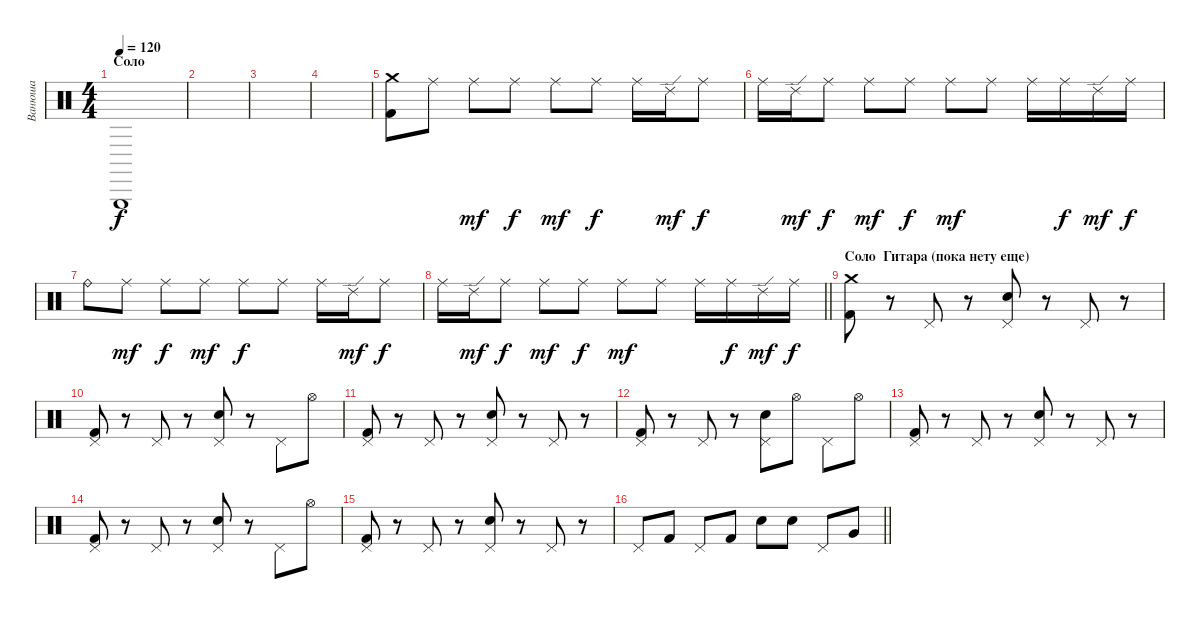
\track ("Ванюша" "Ванюша") {instrument percussion}
\staff {score}
\articulation defaults
\ts (4 4)
\section ("" "Соло")
\tempo 120
\clef neutral
\ks c "Triangle (hit)".1{dy f}
|
|
|
|
("Kick (hit) 2" "Crash medium (hit)").8 "Ride (middle)".8 "Ride (middle)".8{dy mf} "Ride (middle)".8{dy f} "Ride (middle)".8{dy mf} "Ride (middle)".8{dy f} "Ride (middle)".16 "Ride (edge) 2".16{dy mf} "Ride (middle)".8{dy f} |
"Ride (middle)".16 "Ride (edge) 2".16{dy mf} "Ride (middle)".8{dy f} "Ride (middle)".8{dy mf} "Ride (middle)".8{dy f} "Ride (middle)".8{dy mf} "Ride (middle)".8 "Ride (middle)".16 "Ride (middle)".16{dy f} "Ride (edge) 2".16{dy mf} "Ride (middle)".16{dy f} |
"Ride (bell)".8 "Ride (middle)".8{dy mf} "Ride (middle)".8{dy f} "Ride (middle)".8{dy mf} "Ride (middle)".8{dy f} "Ride (middle)".8 "Ride (middle)".16 "Ride (edge) 2".16{dy mf} "Ride (middle)".8{dy f} |
\barLineRight lightlight "Ride (middle)".16 "Ride (edge) 2".16{dy mf} "Ride (middle)".8{dy f} "Ride (middle)".8{dy mf} "Ride (middle)".8{dy f} "Ride (middle)".8{dy mf} "Ride (middle)".8 "Ride (middle)".16 "Ride (middle)".16{dy f} "Ride (edge) 2".16{dy mf} "Ride (middle)".16{dy f}
|
\section ("" "Соло  Гитара (пока нету еще)")
("Crash medium (hit)" "Kick (hit) 2").8 r.8 "Pedal Hi-Hat (hit)".8 r.8 ("Pedal Hi-Hat (hit)" "Snare (hit) 2").8 r.8 "Pedal Hi-Hat (hit)".8 r.8 |
("Pedal Hi-Hat (hit)" "Kick (hit) 2").8 r.8 "Pedal Hi-Hat (hit)".8 r.8 ("Pedal Hi-Hat (hit)" "Snare (hit) 2").8 r.8 "Pedal Hi-Hat (hit)".8 "Hi-Hat (open)".8 |
("Pedal Hi-Hat (hit)" "Kick (hit) 2").8 r.8 "Pedal Hi-Hat (hit)".8 r.8 ("Pedal Hi-Hat (hit)" "Snare (hit) 2").8 r.8 "Pedal Hi-Hat (hit)".8 r.8 |
("Pedal Hi-Hat (hit)" "Kick (hit) 2").8 r.8 "Pedal Hi-Hat (hit)".8 r.8 ("Pedal Hi-Hat (hit)" "Snare (hit) 2").8 "Hi-Hat (open)".8 "Pedal Hi-Hat (hit)".8 "Hi-Hat (open)".8 |
("Pedal Hi-Hat (hit)" "Kick (hit) 2").8 r.8 "Pedal Hi-Hat (hit)".8 r.8 ("Pedal Hi-Hat (hit)" "Snare (hit) 2").8 r.8 "Pedal Hi-Hat (hit)".8 r.8 |
("Pedal Hi-Hat (hit)" "Kick (hit) 2").8 r.8 "Pedal Hi-Hat (hit)".8 r.8 ("Pedal Hi-Hat (hit)" "Snare (hit) 2").8 r.8 "Pedal Hi-Hat (hit)".8 "Hi-Hat (open)".8 |
("Pedal Hi-Hat (hit)" "Kick (hit) 2").8 r.8 "Pedal Hi-Hat (hit)".8 r.8 ("Pedal Hi-Hat (hit)" "Snare (hit) 2").8 r.8 "Pedal Hi-Hat (hit)".8 r.8 |
\barLineRight lightlight "Pedal Hi-Hat (hit)".8 "Kick (hit) 2".8 "Pedal Hi-Hat (hit)".8 "Kick (hit) 2".8 "Snare (hit) 2".8 "Snare (hit) 2".8 "Pedal Hi-Hat (hit)".8 "Very Low Tom (hit)".8
